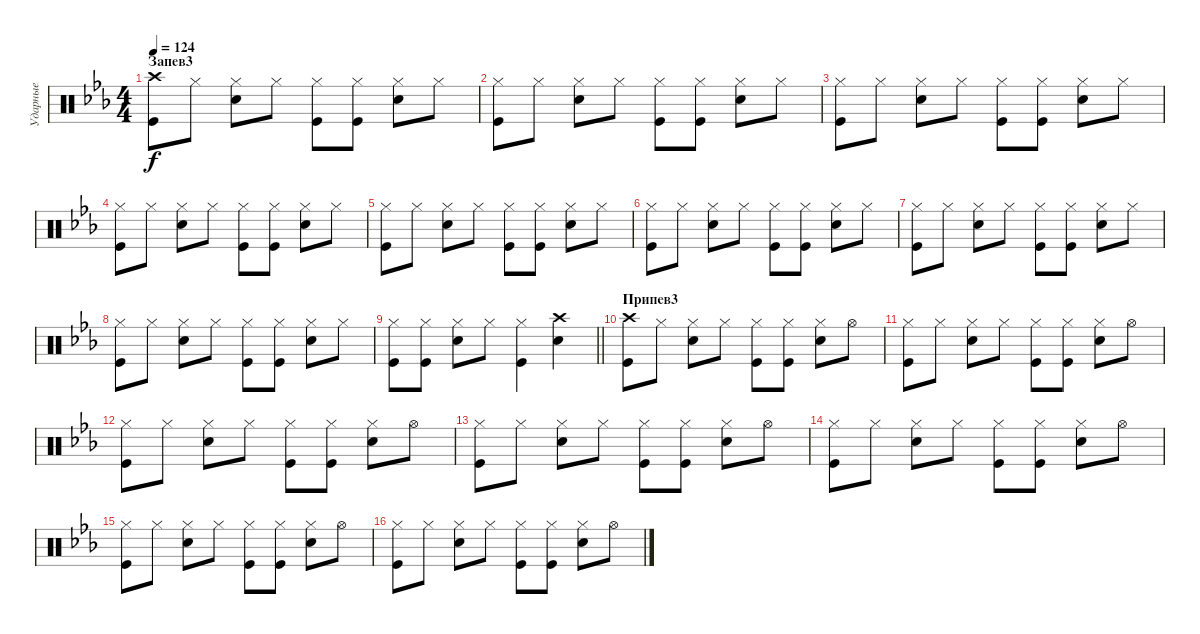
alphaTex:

\track ("Ударные" "Ударные") {instrument percussion}
\staff {score}
\articulation defaults
\ts (4 4)
\section ("" "Запев3")
\tempo 124
\clef neutral
\ks cminor
("Crash high (hit)" "Kick (hit)").8{dy f} "Hi-Hat (closed)".8 ("Hi-Hat (closed)" "Snare (hit) 2").8 "Hi-Hat (closed)".8 ("Hi-Hat (closed)" "Kick (hit)").8 ("Kick (hit)" "Hi-Hat (closed)").8 ("Hi-Hat (closed)" "Snare (hit) 2").8 "Hi-Hat (closed)".8 |
("Hi-Hat (closed)" "Kick (hit)").8 "Hi-Hat (closed)".8 ("Hi-Hat (closed)" "Snare (hit) 2").8 "Hi-Hat (closed)".8 ("Hi-Hat (closed)" "Kick (hit)").8 ("Hi-Hat (closed)" "Kick (hit)").8 ("Hi-Hat (closed)" "Snare (hit) 2").8 "Hi-Hat (closed)".8 |
("Hi-Hat (closed)" "Kick (hit)").8 "Hi-Hat (closed)".8 ("Hi-Hat (closed)" "Snare (hit) 2").8 "Hi-Hat (closed)".8 ("Hi-Hat (closed)" "Kick (hit)").8 ("Hi-Hat (closed)" "Kick (hit)").8 ("Hi-Hat (closed)" "Snare (hit) 2").8 "Hi-Hat (closed)".8 |
("Hi-Hat (closed)" "Kick (hit)").8 "Hi-Hat (closed)".8 ("Hi-Hat (closed)" "Snare (hit) 2").8 "Hi-Hat (closed)".8 ("Hi-Hat (closed)" "Kick (hit)").8 ("Hi-Hat (closed)" "Kick (hit)").8 ("Hi-Hat (closed)" "Snare (hit) 2").8 "Hi-Hat (closed)".8 |
("Hi-Hat (closed)" "Kick (hit)").8 "Hi-Hat (closed)".8 ("Hi-Hat (closed)" "Snare (hit) 2").8 "Hi-Hat (closed)".8 ("Hi-Hat (closed)" "Kick (hit)").8 ("Hi-Hat (closed)" "Kick (hit)").8 ("Hi-Hat (closed)" "Snare (hit) 2").8 "Hi-Hat (closed)".8 |
("Hi-Hat (closed)" "Kick (hit)").8 "Hi-Hat (closed)".8 ("Hi-Hat (closed)" "Snare (hit) 2").8 "Hi-Hat (closed)".8 ("Hi-Hat (closed)" "Kick (hit)").8 ("Hi-Hat (closed)" "Kick (hit)").8 ("Hi-Hat (closed)" "Snare (hit) 2").8 "Hi-Hat (closed)".8 |
("Hi-Hat (closed)" "Kick (hit)").8 "Hi-Hat (closed)".8 ("Hi-Hat (closed)" "Snare (hit) 2").8 "Hi-Hat (closed)".8 ("Hi-Hat (closed)" "Kick (hit)").8 ("Hi-Hat (closed)" "Kick (hit)").8 ("Hi-Hat (closed)" "Snare (hit) 2").8 "Hi-Hat (closed)".8 |
("Hi-Hat (closed)" "Kick (hit)").8 "Hi-Hat (closed)".8 ("Hi-Hat (closed)" "Snare (hit) 2").8 "Hi-Hat (closed)".8 ("Hi-Hat (closed)" "Kick (hit)").8 ("Hi-Hat (closed)" "Kick (hit)").8 ("Hi-Hat (closed)" "Snare (hit) 2").8 "Hi-Hat (closed)".8 |
\barLineRight lightlight
("Hi-Hat (closed)" "Kick (hit)").8 ("Hi-Hat (closed)" "Kick (hit)").8 ("Hi-Hat (closed)" "Snare (hit) 2").8 "Hi-Hat (closed)".8 ("Kick (hit)" "Hi-Hat (closed)").4 ("Crash high (hit)" "Snare (hit) 2").4 |
\section ("" "Припев3")
("Crash high (hit)" "Kick (hit)").8 "Hi-Hat (closed)".8 ("Hi-Hat (closed)" "Snare (hit) 2").8 "Hi-Hat (closed)".8 ("Hi-Hat (closed)" "Kick (hit)").8 ("Hi-Hat (closed)" "Kick (hit)").8 ("Hi-Hat (closed)" "Snare (hit) 2").8 "Hi-Hat (open)".8 |
("Hi-Hat (closed)" "Kick (hit)").8 "Hi-Hat (closed)".8 ("Snare (hit) 2" "Hi-Hat (closed)").8 "Hi-Hat (closed)".8 ("Hi-Hat (closed)" "Kick (hit)").8 ("Hi-Hat (closed)" "Kick (hit)").8 ("Hi-Hat (closed)" "Snare (hit) 2").8 "Hi-Hat (open)".8 |
("Hi-Hat (closed)" "Kick (hit)").8 "Hi-Hat (closed)".8 ("Snare (hit) 2" "Hi-Hat (closed)").8 "Hi-Hat (closed)".8 ("Hi-Hat (closed)" "Kick (hit)").8 ("Hi-Hat (closed)" "Kick (hit)").8 ("Hi-Hat (closed)" "Snare (hit) 2").8 "Hi-Hat (open)".8 |
("Hi-Hat (closed)" "Kick (hit)").8 "Hi-Hat (closed)".8 ("Snare (hit) 2" "Hi-Hat (closed)").8 "Hi-Hat (closed)".8 ("Hi-Hat (closed)" "Kick (hit)").8 ("Hi-Hat (closed)" "Kick (hit)").8 ("Hi-Hat (closed)" "Snare (hit) 2").8 "Hi-Hat (open)".8 |
("Hi-Hat (closed)" "Kick (hit)").8 "Hi-Hat (closed)".8 ("Snare (hit) 2" "Hi-Hat (closed)").8 "Hi-Hat (closed)".8 ("Hi-Hat (closed)" "Kick (hit)").8 ("Hi-Hat (closed)" "Kick (hit)").8 ("Hi-Hat (closed)" "Snare (hit) 2").8 "Hi-Hat (open)".8 |
("Hi-Hat (closed)" "Kick (hit)").8 "Hi-Hat (closed)".8 ("Snare (hit) 2" "Hi-Hat (closed)").8 "Hi-Hat (closed)".8 ("Hi-Hat (closed)" "Kick (hit)").8 ("Hi-Hat (closed)" "Kick (hit)").8 ("Hi-Hat (closed)" "Snare (hit) 2").8 "Hi-Hat (open)".8 |
("Hi-Hat (closed)" "Kick (hit)").8 "Hi-Hat (closed)".8 ("Snare (hit) 2" "Hi-Hat (closed)").8 "Hi-Hat (closed)".8 ("Hi-Hat (closed)" "Kick (hit)").8 ("Hi-Hat (closed)" "Kick (hit)").8 ("Hi-Hat (closed)" "Snare (hit) 2").8 "Hi-Hat (open)".8
